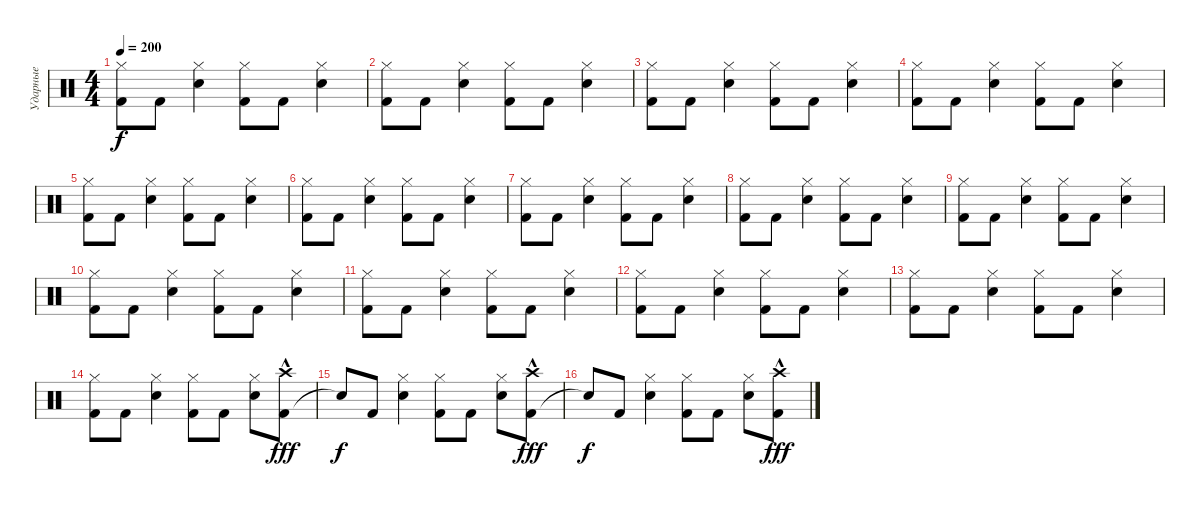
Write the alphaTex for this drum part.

\track ("Ударные" "Ударные") {instrument percussion}
\staff {score}
\articulation defaults
\ts (4 4)
\tempo 200
\clef neutral
\ks c
("Kick (hit) 2" "Hi-Hat (closed)").8{dy f} "Kick (hit) 2".8 ("Snare (hit) 2" "Hi-Hat (closed)").4 ("Kick (hit) 2" "Hi-Hat (closed)").8 "Kick (hit) 2".8 ("Snare (hit) 2" "Hi-Hat (closed)").4 |
("Kick (hit) 2" "Hi-Hat (closed)").8 "Kick (hit) 2".8 ("Snare (hit) 2" "Hi-Hat (closed)").4 ("Kick (hit) 2" "Hi-Hat (closed)").8 "Kick (hit) 2".8 ("Snare (hit) 2" "Hi-Hat (closed)").4 |
("Kick (hit) 2" "Hi-Hat (closed)").8 "Kick (hit) 2".8 ("Snare (hit) 2" "Hi-Hat (closed)").4 ("Kick (hit) 2" "Hi-Hat (closed)").8 "Kick (hit) 2".8 ("Snare (hit) 2" "Hi-Hat (closed)").4 |
("Kick (hit) 2" "Hi-Hat (closed)").8 "Kick (hit) 2".8 ("Snare (hit) 2" "Hi-Hat (closed)").4 ("Kick (hit) 2" "Hi-Hat (closed)").8 "Kick (hit) 2".8 ("Snare (hit) 2" "Hi-Hat (closed)").4 |
("Kick (hit) 2" "Hi-Hat (closed)").8 "Kick (hit) 2".8 ("Snare (hit) 2" "Hi-Hat (closed)").4 ("Kick (hit) 2" "Hi-Hat (closed)").8 "Kick (hit) 2".8 ("Snare (hit) 2" "Hi-Hat (closed)").4 |
("Kick (hit) 2" "Hi-Hat (closed)").8 "Kick (hit) 2".8 ("Snare (hit) 2" "Hi-Hat (closed)").4 ("Kick (hit) 2" "Hi-Hat (closed)").8 "Kick (hit) 2".8 ("Snare (hit) 2" "Hi-Hat (closed)").4 |
("Kick (hit) 2" "Hi-Hat (closed)").8 "Kick (hit) 2".8 ("Snare (hit) 2" "Hi-Hat (closed)").4 ("Kick (hit) 2" "Hi-Hat (closed)").8 "Kick (hit) 2".8 ("Snare (hit) 2" "Hi-Hat (closed)").4 |
("Kick (hit) 2" "Hi-Hat (closed)").8 "Kick (hit) 2".8 ("Snare (hit) 2" "Hi-Hat (closed)").4 ("Kick (hit) 2" "Hi-Hat (closed)").8 "Kick (hit) 2".8 ("Snare (hit) 2" "Hi-Hat (closed)").4 |
("Kick (hit) 2" "Hi-Hat (closed)").8 "Kick (hit) 2".8 ("Snare (hit) 2" "Hi-Hat (closed)").4 ("Kick (hit) 2" "Hi-Hat (closed)").8 "Kick (hit) 2".8 ("Snare (hit) 2" "Hi-Hat (closed)").4 |
("Kick (hit) 2" "Hi-Hat (closed)").8 "Kick (hit) 2".8 ("Snare (hit) 2" "Hi-Hat (closed)").4 ("Kick (hit) 2" "Hi-Hat (closed)").8 "Kick (hit) 2".8 ("Snare (hit) 2" "Hi-Hat (closed)").4 |
("Kick (hit) 2" "Hi-Hat (closed)").8 "Kick (hit) 2".8 ("Snare (hit) 2" "Hi-Hat (closed)").4 ("Kick (hit) 2" "Hi-Hat (closed)").8 "Kick (hit) 2".8 ("Snare (hit) 2" "Hi-Hat (closed)").4 |
("Kick (hit) 2" "Hi-Hat (closed)").8 "Kick (hit) 2".8 ("Snare (hit) 2" "Hi-Hat (closed)").4 ("Kick (hit) 2" "Hi-Hat (closed)").8 "Kick (hit) 2".8 ("Snare (hit) 2" "Hi-Hat (closed)").4 |
("Kick (hit) 2" "Hi-Hat (closed)").8 "Kick (hit) 2".8 ("Snare (hit) 2" "Hi-Hat (closed)").4 ("Kick (hit) 2" "Hi-Hat (closed)").8 "Kick (hit) 2".8 ("Snare (hit) 2" "Hi-Hat (closed)").4 |
("Kick (hit) 2" "Hi-Hat (closed)").8 "Kick (hit) 2".8 ("Snare (hit) 2" "Hi-Hat (closed)").4 ("Kick (hit) 2" "Hi-Hat (closed)").8 "Kick (hit) 2".8 ("Snare (hit) 2" "Hi-Hat (closed)").8 ("Kick (hit) 2" "Crash high (hit)"{hac}).8{dy fff} |
"Snare (hit)"{t}.8{dy f} "Kick (hit) 2".8 ("Snare (hit) 2" "Hi-Hat (closed)").4 ("Kick (hit) 2" "Hi-Hat (closed)").8 "Kick (hit) 2".8 ("Snare (hit) 2" "Hi-Hat (closed)").8 ("Kick (hit) 2" "Crash high (hit)"{hac}).8{dy fff} |
"Snare (hit)"{t}.8{dy f} "Kick (hit) 2".8 ("Snare (hit) 2" "Hi-Hat (closed)").4 ("Kick (hit) 2" "Hi-Hat (closed)").8 "Kick (hit) 2".8 ("Snare (hit) 2" "Hi-Hat (closed)").8 ("Kick (hit) 2" "Crash high (hit)"{hac}).8{dy fff}
